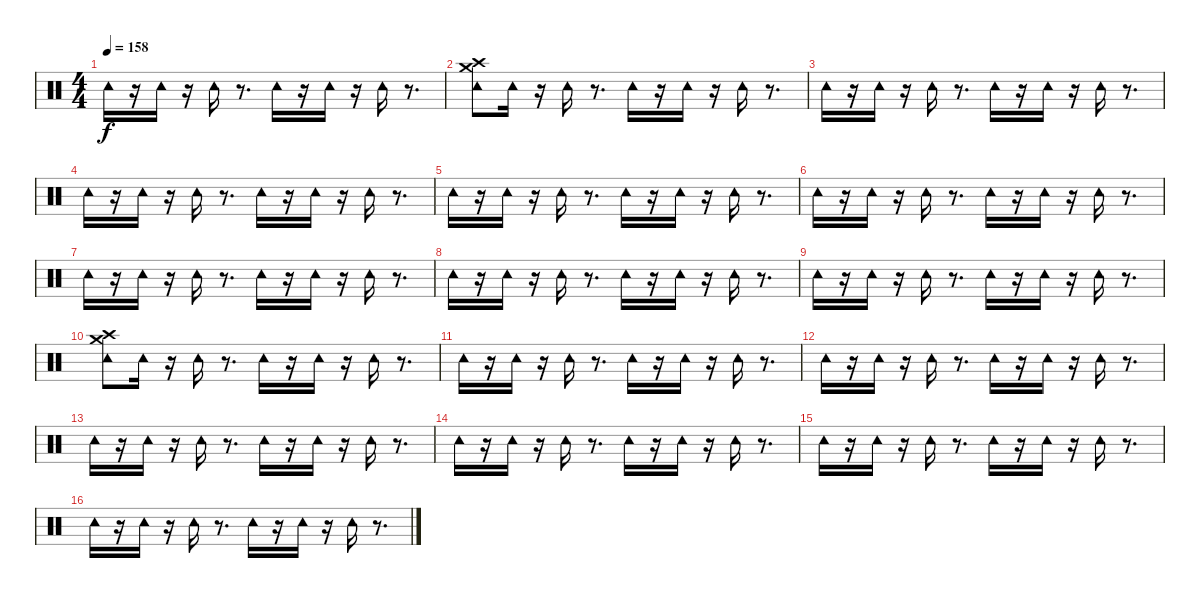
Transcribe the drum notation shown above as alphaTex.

\track "" {instrument percussion}
\staff {score}
\articulation defaults
\ts (4 4)
\tempo 158
\clef neutral
\ks c "Tambourine (hit)".16{dy f}
r.16 "Tambourine (hit)".16 r.16 "Tambourine (hit)".16 r.8{d} "Tambourine (hit)".16 r.16 "Tambourine (hit)".16 r.16 "Tambourine (hit)".16 r.8{d} |
("Crash medium (hit)" "Crash high (hit)" "Tambourine (hit)").8 "Tambourine (hit)".16 r.16 "Tambourine (hit)".16 r.8{d} "Tambourine (hit)".16 r.16 "Tambourine (hit)".16 r.16 "Tambourine (hit)".16 r.8{d} |
"Tambourine (hit)".16 r.16 "Tambourine (hit)".16 r.16 "Tambourine (hit)".16 r.8{d} "Tambourine (hit)".16 r.16 "Tambourine (hit)".16 r.16 "Tambourine (hit)".16 r.8{d} |
"Tambourine (hit)".16 r.16 "Tambourine (hit)".16 r.16 "Tambourine (hit)".16 r.8{d} "Tambourine (hit)".16 r.16 "Tambourine (hit)".16 r.16 "Tambourine (hit)".16 r.8{d} |
"Tambourine (hit)".16 r.16 "Tambourine (hit)".16 r.16 "Tambourine (hit)".16 r.8{d} "Tambourine (hit)".16 r.16 "Tambourine (hit)".16 r.16 "Tambourine (hit)".16 r.8{d} |
"Tambourine (hit)".16 r.16 "Tambourine (hit)".16 r.16 "Tambourine (hit)".16 r.8{d} "Tambourine (hit)".16 r.16 "Tambourine (hit)".16 r.16 "Tambourine (hit)".16 r.8{d} |
"Tambourine (hit)".16 r.16 "Tambourine (hit)".16 r.16 "Tambourine (hit)".16 r.8{d} "Tambourine (hit)".16 r.16 "Tambourine (hit)".16 r.16 "Tambourine (hit)".16 r.8{d} |
"Tambourine (hit)".16 r.16 "Tambourine (hit)".16 r.16 "Tambourine (hit)".16 r.8{d} "Tambourine (hit)".16 r.16 "Tambourine (hit)".16 r.16 "Tambourine (hit)".16 r.8{d} |
"Tambourine (hit)".16 r.16 "Tambourine (hit)".16 r.16 "Tambourine (hit)".16 r.8{d} "Tambourine (hit)".16 r.16 "Tambourine (hit)".16 r.16 "Tambourine (hit)".16 r.8{d} |
("Crash medium (hit)" "Crash high (hit)" "Tambourine (hit)").8 "Tambourine (hit)".16 r.16 "Tambourine (hit)".16 r.8{d} "Tambourine (hit)".16 r.16 "Tambourine (hit)".16 r.16 "Tambourine (hit)".16 r.8{d} |
"Tambourine (hit)".16 r.16 "Tambourine (hit)".16 r.16 "Tambourine (hit)".16 r.8{d} "Tambourine (hit)".16 r.16 "Tambourine (hit)".16 r.16 "Tambourine (hit)".16 r.8{d} |
"Tambourine (hit)".16 r.16 "Tambourine (hit)".16 r.16 "Tambourine (hit)".16 r.8{d} "Tambourine (hit)".16 r.16 "Tambourine (hit)".16 r.16 "Tambourine (hit)".16 r.8{d} |
"Tambourine (hit)".16 r.16 "Tambourine (hit)".16 r.16 "Tambourine (hit)".16 r.8{d} "Tambourine (hit)".16 r.16 "Tambourine (hit)".16 r.16 "Tambourine (hit)".16 r.8{d} |
"Tambourine (hit)".16 r.16 "Tambourine (hit)".16 r.16 "Tambourine (hit)".16 r.8{d} "Tambourine (hit)".16 r.16 "Tambourine (hit)".16 r.16 "Tambourine (hit)".16 r.8{d} |
"Tambourine (hit)".16 r.16 "Tambourine (hit)".16 r.16 "Tambourine (hit)".16 r.8{d} "Tambourine (hit)".16 r.16 "Tambourine (hit)".16 r.16 "Tambourine (hit)".16 r.8{d} |
"Tambourine (hit)".16 r.16 "Tambourine (hit)".16 r.16 "Tambourine (hit)".16 r.8{d} "Tambourine (hit)".16 r.16 "Tambourine (hit)".16 r.16 "Tambourine (hit)".16 r.8{d}
